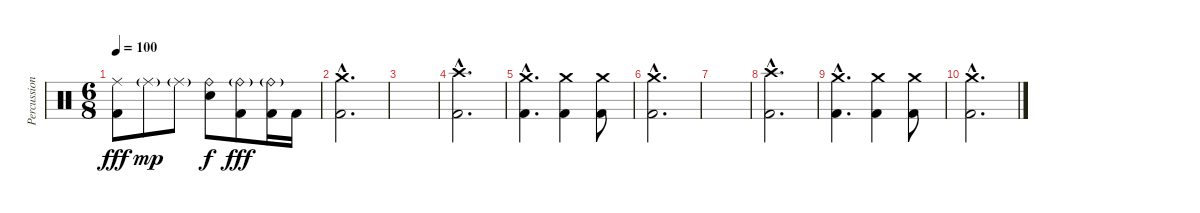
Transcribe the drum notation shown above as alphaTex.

\track ("Percussion" "Percussion") {instrument percussion}
\staff {score}
\articulation defaults
\ts (6 8)
\tempo 100
\clef neutral
\ks c
("Ride (middle)" "Kick (hit) 2").8{dy fff} "Ride (middle)"{g}.8{dy mp} "Ride (middle)"{g}.8 ("Ride (bell)" "Electric Snare (hit)").8{dy f} ("Ride (bell)"{g} "Kick (hit) 2").8{dy fff} ("Ride (bell)"{g} "Kick (hit) 2").16 "Kick (hit) 2".16 |
("Crash medium (hit)"{hac} "Kick (hit) 2"{hac}).2{d} |
|
("Crash high (hit)"{hac} "Kick (hit) 2"{hac}).2{d} |
("Crash medium (hit)"{hac} "Kick (hit) 2"{hac}).4{d} ("Crash medium (hit)" "Kick (hit) 2").4 ("Crash medium (hit)" "Kick (hit) 2").8 |
("Crash medium (hit)"{hac} "Kick (hit) 2"{hac}).2{d} |
|
("Crash high (hit)"{hac} "Kick (hit) 2"{hac}).2{d} |
("Crash medium (hit)"{hac} "Kick (hit) 2"{hac}).4{d} ("Crash medium (hit)" "Kick (hit) 2").4 ("Crash medium (hit)" "Kick (hit) 2").8 |
("Crash medium (hit)"{hac} "Kick (hit) 2"{hac}).2{d}
